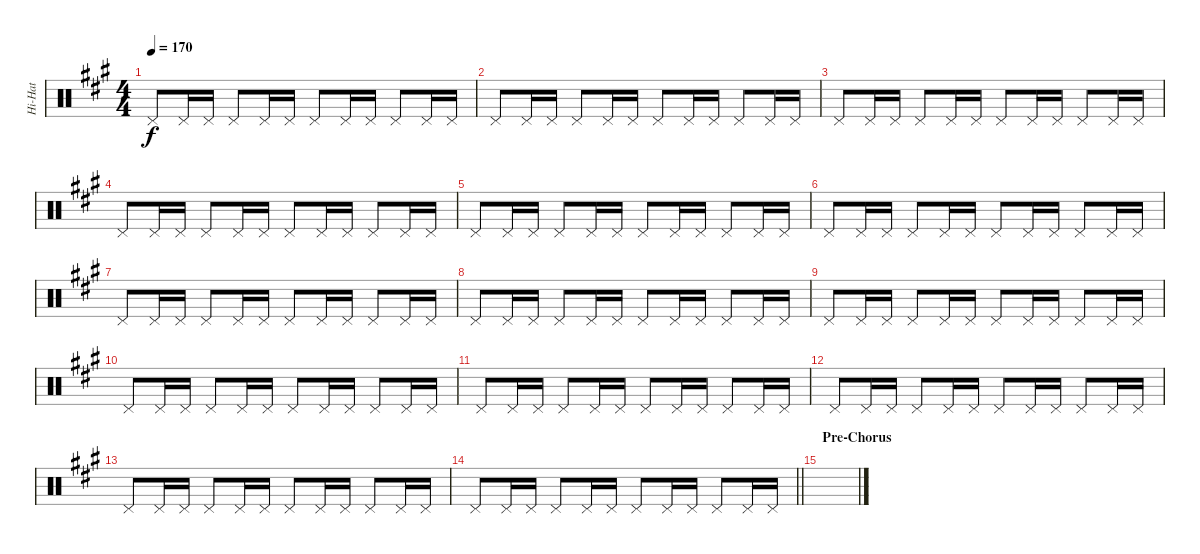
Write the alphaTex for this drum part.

\track ("Hi-Hat" "Hi-Hat") {instrument percussion}
\staff {score}
\articulation defaults
\ts (4 4)
\tempo 170
\clef neutral
\ks a "Pedal Hi-Hat (hit)".8{dy f} "Pedal Hi-Hat (hit)".16 "Pedal Hi-Hat (hit)".16 "Pedal Hi-Hat (hit)".8 "Pedal Hi-Hat (hit)".16 "Pedal Hi-Hat (hit)".16 "Pedal Hi-Hat (hit)".8 "Pedal Hi-Hat (hit)".16 "Pedal Hi-Hat (hit)".16 "Pedal Hi-Hat (hit)".8 "Pedal Hi-Hat (hit)".16 "Pedal Hi-Hat (hit)".16
|
"Pedal Hi-Hat (hit)".8 "Pedal Hi-Hat (hit)".16 "Pedal Hi-Hat (hit)".16 "Pedal Hi-Hat (hit)".8 "Pedal Hi-Hat (hit)".16 "Pedal Hi-Hat (hit)".16 "Pedal Hi-Hat (hit)".8 "Pedal Hi-Hat (hit)".16 "Pedal Hi-Hat (hit)".16 "Pedal Hi-Hat (hit)".8 "Pedal Hi-Hat (hit)".16 "Pedal Hi-Hat (hit)".16 |
"Pedal Hi-Hat (hit)".8 "Pedal Hi-Hat (hit)".16 "Pedal Hi-Hat (hit)".16 "Pedal Hi-Hat (hit)".8 "Pedal Hi-Hat (hit)".16 "Pedal Hi-Hat (hit)".16 "Pedal Hi-Hat (hit)".8 "Pedal Hi-Hat (hit)".16 "Pedal Hi-Hat (hit)".16 "Pedal Hi-Hat (hit)".8 "Pedal Hi-Hat (hit)".16 "Pedal Hi-Hat (hit)".16 |
"Pedal Hi-Hat (hit)".8 "Pedal Hi-Hat (hit)".16 "Pedal Hi-Hat (hit)".16 "Pedal Hi-Hat (hit)".8 "Pedal Hi-Hat (hit)".16 "Pedal Hi-Hat (hit)".16 "Pedal Hi-Hat (hit)".8 "Pedal Hi-Hat (hit)".16 "Pedal Hi-Hat (hit)".16 "Pedal Hi-Hat (hit)".8 "Pedal Hi-Hat (hit)".16 "Pedal Hi-Hat (hit)".16 |
"Pedal Hi-Hat (hit)".8 "Pedal Hi-Hat (hit)".16 "Pedal Hi-Hat (hit)".16 "Pedal Hi-Hat (hit)".8 "Pedal Hi-Hat (hit)".16 "Pedal Hi-Hat (hit)".16 "Pedal Hi-Hat (hit)".8 "Pedal Hi-Hat (hit)".16 "Pedal Hi-Hat (hit)".16 "Pedal Hi-Hat (hit)".8 "Pedal Hi-Hat (hit)".16 "Pedal Hi-Hat (hit)".16 |
"Pedal Hi-Hat (hit)".8 "Pedal Hi-Hat (hit)".16 "Pedal Hi-Hat (hit)".16 "Pedal Hi-Hat (hit)".8 "Pedal Hi-Hat (hit)".16 "Pedal Hi-Hat (hit)".16 "Pedal Hi-Hat (hit)".8 "Pedal Hi-Hat (hit)".16 "Pedal Hi-Hat (hit)".16 "Pedal Hi-Hat (hit)".8 "Pedal Hi-Hat (hit)".16 "Pedal Hi-Hat (hit)".16 |
"Pedal Hi-Hat (hit)".8 "Pedal Hi-Hat (hit)".16 "Pedal Hi-Hat (hit)".16 "Pedal Hi-Hat (hit)".8 "Pedal Hi-Hat (hit)".16 "Pedal Hi-Hat (hit)".16 "Pedal Hi-Hat (hit)".8 "Pedal Hi-Hat (hit)".16 "Pedal Hi-Hat (hit)".16 "Pedal Hi-Hat (hit)".8 "Pedal Hi-Hat (hit)".16 "Pedal Hi-Hat (hit)".16 |
"Pedal Hi-Hat (hit)".8 "Pedal Hi-Hat (hit)".16 "Pedal Hi-Hat (hit)".16 "Pedal Hi-Hat (hit)".8 "Pedal Hi-Hat (hit)".16 "Pedal Hi-Hat (hit)".16 "Pedal Hi-Hat (hit)".8 "Pedal Hi-Hat (hit)".16 "Pedal Hi-Hat (hit)".16 "Pedal Hi-Hat (hit)".8 "Pedal Hi-Hat (hit)".16 "Pedal Hi-Hat (hit)".16 |
"Pedal Hi-Hat (hit)".8 "Pedal Hi-Hat (hit)".16 "Pedal Hi-Hat (hit)".16 "Pedal Hi-Hat (hit)".8 "Pedal Hi-Hat (hit)".16 "Pedal Hi-Hat (hit)".16 "Pedal Hi-Hat (hit)".8 "Pedal Hi-Hat (hit)".16 "Pedal Hi-Hat (hit)".16 "Pedal Hi-Hat (hit)".8 "Pedal Hi-Hat (hit)".16 "Pedal Hi-Hat (hit)".16 |
"Pedal Hi-Hat (hit)".8 "Pedal Hi-Hat (hit)".16 "Pedal Hi-Hat (hit)".16 "Pedal Hi-Hat (hit)".8 "Pedal Hi-Hat (hit)".16 "Pedal Hi-Hat (hit)".16 "Pedal Hi-Hat (hit)".8 "Pedal Hi-Hat (hit)".16 "Pedal Hi-Hat (hit)".16 "Pedal Hi-Hat (hit)".8 "Pedal Hi-Hat (hit)".16 "Pedal Hi-Hat (hit)".16 |
"Pedal Hi-Hat (hit)".8 "Pedal Hi-Hat (hit)".16 "Pedal Hi-Hat (hit)".16 "Pedal Hi-Hat (hit)".8 "Pedal Hi-Hat (hit)".16 "Pedal Hi-Hat (hit)".16 "Pedal Hi-Hat (hit)".8 "Pedal Hi-Hat (hit)".16 "Pedal Hi-Hat (hit)".16 "Pedal Hi-Hat (hit)".8 "Pedal Hi-Hat (hit)".16 "Pedal Hi-Hat (hit)".16 |
"Pedal Hi-Hat (hit)".8 "Pedal Hi-Hat (hit)".16 "Pedal Hi-Hat (hit)".16 "Pedal Hi-Hat (hit)".8 "Pedal Hi-Hat (hit)".16 "Pedal Hi-Hat (hit)".16 "Pedal Hi-Hat (hit)".8 "Pedal Hi-Hat (hit)".16 "Pedal Hi-Hat (hit)".16 "Pedal Hi-Hat (hit)".8 "Pedal Hi-Hat (hit)".16 "Pedal Hi-Hat (hit)".16 |
"Pedal Hi-Hat (hit)".8 "Pedal Hi-Hat (hit)".16 "Pedal Hi-Hat (hit)".16 "Pedal Hi-Hat (hit)".8 "Pedal Hi-Hat (hit)".16 "Pedal Hi-Hat (hit)".16 "Pedal Hi-Hat (hit)".8 "Pedal Hi-Hat (hit)".16 "Pedal Hi-Hat (hit)".16 "Pedal Hi-Hat (hit)".8 "Pedal Hi-Hat (hit)".16 "Pedal Hi-Hat (hit)".16 |
\barLineRight lightlight "Pedal Hi-Hat (hit)".8 "Pedal Hi-Hat (hit)".16 "Pedal Hi-Hat (hit)".16 "Pedal Hi-Hat (hit)".8 "Pedal Hi-Hat (hit)".16 "Pedal Hi-Hat (hit)".16 "Pedal Hi-Hat (hit)".8 "Pedal Hi-Hat (hit)".16 "Pedal Hi-Hat (hit)".16 "Pedal Hi-Hat (hit)".8 "Pedal Hi-Hat (hit)".16 "Pedal Hi-Hat (hit)".16
|
\section ("" "Pre-Chorus")
